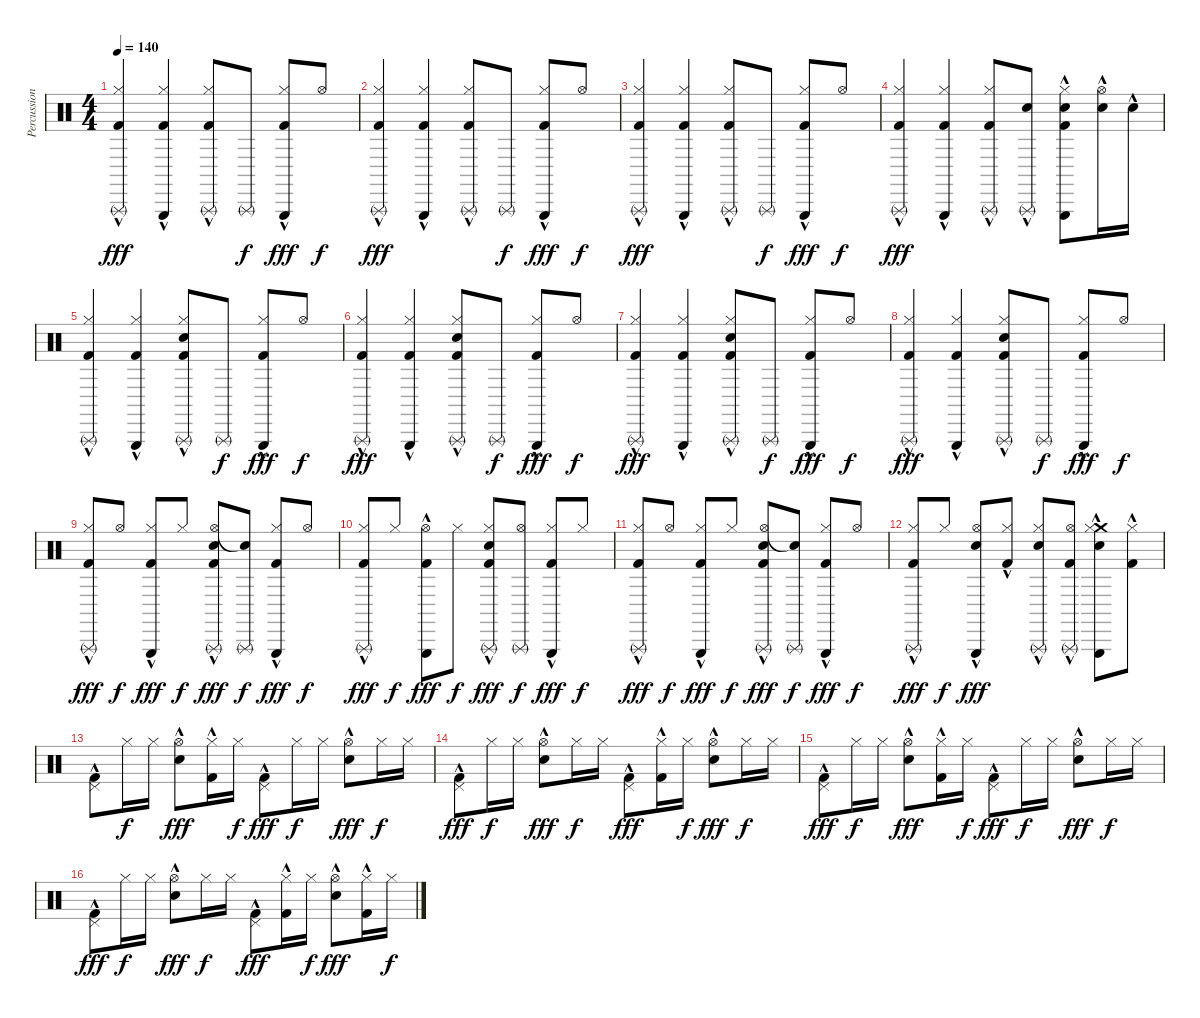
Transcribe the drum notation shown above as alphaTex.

\track ("Percussion" "Percussion") {instrument percussion}
\staff {score}
\articulation defaults
\ts (4 4)
\tempo 140
\clef neutral
\ks c
("Triangle (rnute)" "Hi-Hat (closed)" "Kick (hit) 2"{hac}).4{dy fff} ("Triangle (hit)" "Hi-Hat (closed)" "Kick (hit) 2"{hac}).4 ("Triangle (rnute)" "Hi-Hat (closed)" "Kick (hit) 2"{hac}).8 "Triangle (rnute)".8{dy f} ("Triangle (hit)" "Hi-Hat (closed)" "Kick (hit) 2"{hac}).8{dy fff} "Hi-Hat (open)".8{dy f} |
("Triangle (rnute)" "Hi-Hat (closed)" "Kick (hit) 2"{hac}).4{dy fff} ("Triangle (hit)" "Hi-Hat (closed)" "Kick (hit) 2"{hac}).4 ("Triangle (rnute)" "Hi-Hat (closed)" "Kick (hit) 2"{hac}).8 "Triangle (rnute)".8{dy f} ("Triangle (hit)" "Hi-Hat (closed)" "Kick (hit) 2"{hac}).8{dy fff} "Hi-Hat (open)".8{dy f} |
("Triangle (rnute)" "Hi-Hat (closed)" "Kick (hit) 2"{hac}).4{dy fff} ("Triangle (hit)" "Hi-Hat (closed)" "Kick (hit) 2"{hac}).4 ("Triangle (rnute)" "Hi-Hat (closed)" "Kick (hit) 2"{hac}).8 "Triangle (rnute)".8{dy f} ("Triangle (hit)" "Hi-Hat (closed)" "Kick (hit) 2"{hac}).8{dy fff} "Hi-Hat (open)".8{dy f} |
("Triangle (rnute)" "Hi-Hat (closed)" "Kick (hit) 2"{hac}).4{dy fff} ("Triangle (hit)" "Hi-Hat (closed)" "Kick (hit) 2"{hac}).4 ("Triangle (rnute)" "Hi-Hat (closed)" "Kick (hit) 2"{hac}).8 ("Triangle (rnute)" "Electric Snare (hit)"{hac}).8 ("Triangle (hit)" "Hi-Hat (closed)" "Electric Snare (hit)"{hac} "Kick (hit) 2"{hac}).8 ("Hi-Hat (open)" "Electric Snare (hit)"{hac}).16 "Electric Snare (hit)"{hac}.16 |
("Triangle (rnute)" "Hi-Hat (closed)" "Kick (hit) 2"{hac}).4 ("Triangle (hit)" "Hi-Hat (closed)" "Kick (hit) 2"{hac}).4 ("Triangle (rnute)" "Hi-Hat (closed)" "Electric Snare (hit)"{hac} "Kick (hit) 2"{hac}).8 "Triangle (rnute)".8{dy f} ("Triangle (hit)" "Hi-Hat (closed)" "Kick (hit) 2"{hac}).8{dy fff} "Hi-Hat (open)".8{dy f} |
("Triangle (rnute)" "Hi-Hat (closed)" "Kick (hit) 2"{hac}).4{dy fff} ("Triangle (hit)" "Hi-Hat (closed)" "Kick (hit) 2"{hac}).4 ("Triangle (rnute)" "Hi-Hat (closed)" "Electric Snare (hit)"{hac} "Kick (hit) 2"{hac}).8 "Triangle (rnute)".8{dy f} ("Triangle (hit)" "Hi-Hat (closed)" "Kick (hit) 2"{hac}).8{dy fff} "Hi-Hat (open)".8{dy f} |
("Triangle (rnute)" "Hi-Hat (closed)" "Kick (hit) 2"{hac}).4{dy fff} ("Triangle (hit)" "Hi-Hat (closed)" "Kick (hit) 2"{hac}).4 ("Triangle (rnute)" "Hi-Hat (closed)" "Electric Snare (hit)"{hac} "Kick (hit) 2"{hac}).8 "Triangle (rnute)".8{dy f} ("Triangle (hit)" "Hi-Hat (closed)" "Kick (hit) 2"{hac}).8{dy fff} "Hi-Hat (open)".8{dy f} |
("Triangle (rnute)" "Hi-Hat (closed)" "Kick (hit) 2"{hac}).4{dy fff} ("Triangle (hit)" "Hi-Hat (closed)" "Kick (hit) 2"{hac}).4 ("Triangle (rnute)" "Hi-Hat (closed)" "Electric Snare (hit)"{hac} "Kick (hit) 2"{hac}).8 "Triangle (rnute)".8{dy f} ("Triangle (hit)" "Hi-Hat (closed)" "Kick (hit) 2"{hac}).8{dy fff} "Hi-Hat (open)".8{dy f} |
("Triangle (rnute)" "Hi-Hat (closed)" "Kick (hit) 2"{hac}).8{dy fff} "Hi-Hat (open)".8{dy f} ("Triangle (hit)" "Hi-Hat (closed)" "Kick (hit) 2"{hac}).8{dy fff} "Hi-Hat (closed)".8{dy f} ("Triangle (rnute)" "Hi-Hat (open)" "Electric Snare (hit)"{hac} "Kick (hit) 2"{hac}).8{dy fff} ("Triangle (rnute)" "Snare (hit)"{t}).8{dy f} ("Triangle (hit)" "Hi-Hat (closed)" "Kick (hit) 2"{hac}).8{dy fff} "Hi-Hat (open)".8{dy f} |
("Triangle (rnute)" "Hi-Hat (closed)" "Kick (hit) 2"{hac}).8{dy fff} "Hi-Hat (closed)".8{dy f} ("Triangle (hit)" "Hi-Hat (open)" "Kick (hit) 2"{hac}).8{dy fff} "Hi-Hat (closed)".8{dy f} ("Triangle (rnute)" "Hi-Hat (closed)" "Electric Snare (hit)"{hac} "Kick (hit) 2"{hac}).8{dy fff} ("Triangle (rnute)" "Hi-Hat (open)").8{dy f} ("Triangle (hit)" "Hi-Hat (closed)" "Kick (hit) 2"{hac}).8{dy fff} "Hi-Hat (closed)".8{dy f} |
("Triangle (rnute)" "Hi-Hat (closed)" "Kick (hit) 2"{hac}).8{dy fff} "Hi-Hat (open)".8{dy f} ("Triangle (hit)" "Hi-Hat (closed)" "Kick (hit) 2"{hac}).8{dy fff} "Hi-Hat (closed)".8{dy f} ("Triangle (rnute)" "Hi-Hat (open)" "Electric Snare (hit)"{hac} "Kick (hit) 2"{hac}).8{dy fff} ("Triangle (rnute)" "Snare (hit)"{t}).8{dy f} ("Triangle (hit)" "Hi-Hat (closed)" "Kick (hit) 2"{hac}).8{dy fff} "Hi-Hat (open)".8{dy f} |
("Triangle (rnute)" "Hi-Hat (closed)" "Kick (hit) 2"{hac}).8{dy fff} "Hi-Hat (closed)".8{dy f} ("Triangle (hit)" "Hi-Hat (open)" "Electric Snare (hit)"{hac}).8{dy fff} ("Hi-Hat (closed)" "Kick (hit) 2"{hac}).8 ("Triangle (rnute)" "Hi-Hat (closed)" "Electric Snare (hit)"{hac}).8 ("Triangle (rnute)" "Hi-Hat (open)" "Kick (hit) 2"{hac}).8 ("Crash medium (hit)"{hac} "Triangle (hit)" "Hi-Hat (closed)" "Electric Snare (hit)"{hac}).8 ("Hi-Hat (closed)" "Kick (hit) 2"{hac}).8 |
("Pedal Hi-Hat (hit)" "Kick (hit) 2"{hac}).8 "Hi-Hat (closed)".16{dy f} "Hi-Hat (closed)".16 ("Hi-Hat (open)" "Electric Snare (hit)"{hac}).8{dy fff} ("Hi-Hat (closed)" "Kick (hit) 2"{hac}).16 "Hi-Hat (closed)".16{dy f} ("Pedal Hi-Hat (hit)" "Kick (hit) 2"{hac}).8{dy fff} "Hi-Hat (closed)".16{dy f} "Hi-Hat (closed)".16 ("Hi-Hat (open)" "Electric Snare (hit)"{hac}).8{dy fff} "Hi-Hat (closed)".16{dy f} "Hi-Hat (closed)".16 |
("Pedal Hi-Hat (hit)" "Kick (hit) 2"{hac}).8{dy fff} "Hi-Hat (closed)".16{dy f} "Hi-Hat (closed)".16 ("Hi-Hat (open)" "Electric Snare (hit)"{hac}).8{dy fff} "Hi-Hat (closed)".16{dy f} "Hi-Hat (closed)".16 ("Pedal Hi-Hat (hit)" "Kick (hit) 2"{hac}).8{dy fff} ("Hi-Hat (closed)" "Kick (hit) 2"{hac}).16 "Hi-Hat (closed)".16{dy f} ("Hi-Hat (open)" "Electric Snare (hit)"{hac}).8{dy fff} "Hi-Hat (closed)".16{dy f} "Hi-Hat (closed)".16 |
("Pedal Hi-Hat (hit)" "Kick (hit) 2"{hac}).8{dy fff} "Hi-Hat (closed)".16{dy f} "Hi-Hat (closed)".16 ("Hi-Hat (open)" "Electric Snare (hit)"{hac}).8{dy fff} ("Hi-Hat (closed)" "Kick (hit) 2"{hac}).16 "Hi-Hat (closed)".16{dy f} ("Pedal Hi-Hat (hit)" "Kick (hit) 2"{hac}).8{dy fff} "Hi-Hat (closed)".16{dy f} "Hi-Hat (closed)".16 ("Hi-Hat (open)" "Electric Snare (hit)"{hac}).8{dy fff} "Hi-Hat (closed)".16{dy f} "Hi-Hat (closed)".16 |
("Pedal Hi-Hat (hit)" "Kick (hit) 2"{hac}).8{dy fff} "Hi-Hat (closed)".16{dy f} "Hi-Hat (closed)".16 ("Hi-Hat (open)" "Electric Snare (hit)"{hac}).8{dy fff} "Hi-Hat (closed)".16{dy f} "Hi-Hat (closed)".16 ("Pedal Hi-Hat (hit)" "Kick (hit) 2"{hac}).8{dy fff} ("Hi-Hat (closed)" "Kick (hit) 2"{hac}).16 "Hi-Hat (closed)".16{dy f} ("Hi-Hat (open)" "Electric Snare (hit)"{hac}).8{dy fff} ("Hi-Hat (closed)" "Kick (hit) 2"{hac}).16 "Hi-Hat (closed)".16{dy f}
